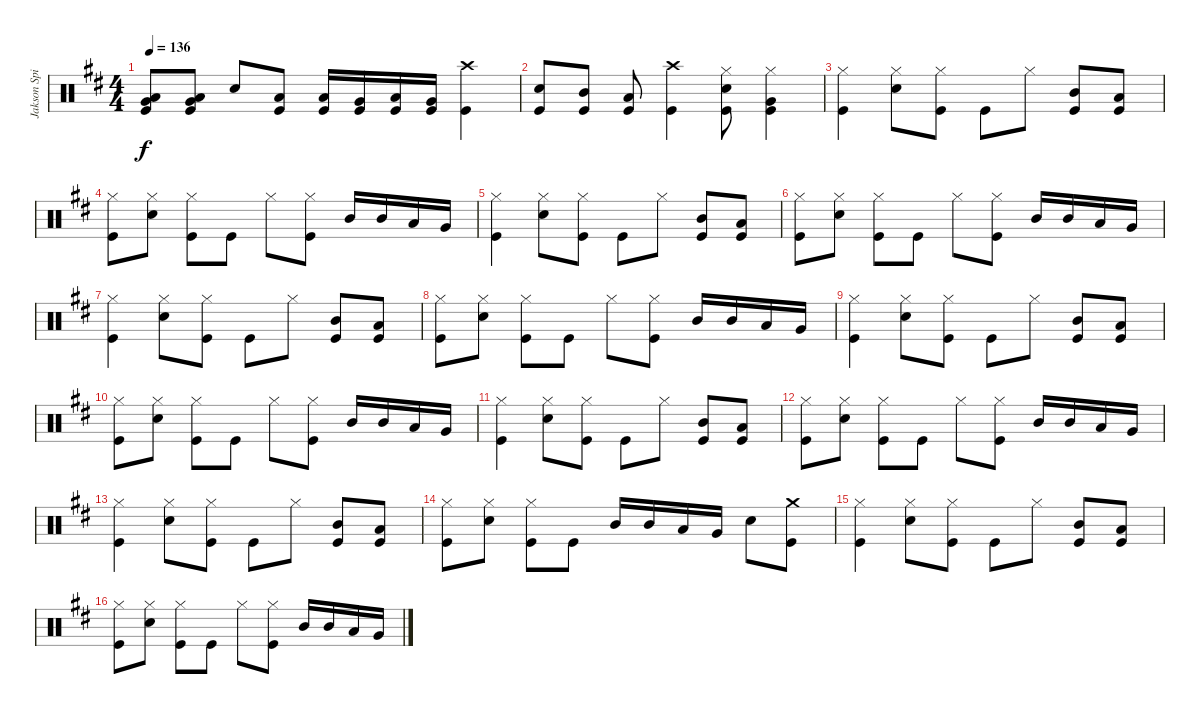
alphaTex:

\track ("Jakson Spires Drums" "Jakson Spi") {instrument percussion}
\staff {score}
\articulation defaults
\ts (4 4)
\tempo 136
\clef neutral
\ks d
("Very Low Tom (hit)" "Low Floor Tom (hit)" "Kick (hit)").8{dy f} ("Very Low Tom (hit)" "Low Floor Tom (hit)" "Kick (hit)").8 "Snare (hit) 2".8 ("Low Tom (hit)" "Kick (hit)").8 ("Low Tom (hit)" "Kick (hit)").16 ("Very Low Tom (hit)" "Kick (hit)").16 ("Low Tom (hit)" "Kick (hit)").16 ("Very Low Tom (hit)" "Kick (hit)").16 ("Crash high (hit)" "Kick (hit)").4 |
("Snare (hit) 2" "Kick (hit)").8 ("Mid Tom (hit)" "Kick (hit)").8 ("Low Tom (hit)" "Kick (hit)").8 ("Crash high (hit)" "Kick (hit)").4 ("Hi-Hat (closed)" "Snare (hit) 2" "Kick (hit)").8 ("Very Low Tom (hit)" "Hi-Hat (closed)" "Kick (hit)").4 |
("Hi-Hat (closed)" "Kick (hit)").4 ("Hi-Hat (closed)" "Snare (hit) 2").8 ("Hi-Hat (closed)" "Kick (hit)").8 "Kick (hit)".8 "Hi-Hat (closed)".8 ("Mid Tom (hit)" "Kick (hit)").8 ("Low Tom (hit)" "Kick (hit)").8 |
("Hi-Hat (closed)" "Kick (hit)").8 ("Hi-Hat (closed)" "Snare (hit) 2").8 ("Hi-Hat (closed)" "Kick (hit)").8 "Kick (hit)".8 "Hi-Hat (closed)".8 ("Hi-Hat (closed)" "Kick (hit)").8 "Mid Tom (hit)".16 "Mid Tom (hit)".16 "Low Tom (hit)".16 "Very Low Tom (hit)".16 |
("Hi-Hat (closed)" "Kick (hit)").4 ("Hi-Hat (closed)" "Snare (hit) 2").8 ("Hi-Hat (closed)" "Kick (hit)").8 "Kick (hit)".8 "Hi-Hat (closed)".8 ("Mid Tom (hit)" "Kick (hit)").8 ("Low Tom (hit)" "Kick (hit)").8 |
("Hi-Hat (closed)" "Kick (hit)").8 ("Hi-Hat (closed)" "Snare (hit) 2").8 ("Hi-Hat (closed)" "Kick (hit)").8 "Kick (hit)".8 "Hi-Hat (closed)".8 ("Hi-Hat (closed)" "Kick (hit)").8 "Mid Tom (hit)".16 "Mid Tom (hit)".16 "Low Tom (hit)".16 "Very Low Tom (hit)".16 |
("Hi-Hat (closed)" "Kick (hit)").4 ("Hi-Hat (closed)" "Snare (hit) 2").8 ("Hi-Hat (closed)" "Kick (hit)").8 "Kick (hit)".8 "Hi-Hat (closed)".8 ("Mid Tom (hit)" "Kick (hit)").8 ("Low Tom (hit)" "Kick (hit)").8 |
("Hi-Hat (closed)" "Kick (hit)").8 ("Hi-Hat (closed)" "Snare (hit) 2").8 ("Hi-Hat (closed)" "Kick (hit)").8 "Kick (hit)".8 "Hi-Hat (closed)".8 ("Hi-Hat (closed)" "Kick (hit)").8 "Mid Tom (hit)".16 "Mid Tom (hit)".16 "Low Tom (hit)".16 "Very Low Tom (hit)".16 |
("Hi-Hat (closed)" "Kick (hit)").4 ("Hi-Hat (closed)" "Snare (hit) 2").8 ("Hi-Hat (closed)" "Kick (hit)").8 "Kick (hit)".8 "Hi-Hat (closed)".8 ("Mid Tom (hit)" "Kick (hit)").8 ("Low Tom (hit)" "Kick (hit)").8 |
("Hi-Hat (closed)" "Kick (hit)").8 ("Hi-Hat (closed)" "Snare (hit) 2").8 ("Hi-Hat (closed)" "Kick (hit)").8 "Kick (hit)".8 "Hi-Hat (closed)".8 ("Hi-Hat (closed)" "Kick (hit)").8 "Mid Tom (hit)".16 "Mid Tom (hit)".16 "Low Tom (hit)".16 "Very Low Tom (hit)".16 |
("Hi-Hat (closed)" "Kick (hit)").4 ("Hi-Hat (closed)" "Snare (hit) 2").8 ("Hi-Hat (closed)" "Kick (hit)").8 "Kick (hit)".8 "Hi-Hat (closed)".8 ("Mid Tom (hit)" "Kick (hit)").8 ("Low Tom (hit)" "Kick (hit)").8 |
("Hi-Hat (closed)" "Kick (hit)").8 ("Hi-Hat (closed)" "Snare (hit) 2").8 ("Hi-Hat (closed)" "Kick (hit)").8 "Kick (hit)".8 "Hi-Hat (closed)".8 ("Hi-Hat (closed)" "Kick (hit)").8 "Mid Tom (hit)".16 "Mid Tom (hit)".16 "Low Tom (hit)".16 "Very Low Tom (hit)".16 |
("Hi-Hat (closed)" "Kick (hit)").4 ("Hi-Hat (closed)" "Snare (hit) 2").8 ("Hi-Hat (closed)" "Kick (hit)").8 "Kick (hit)".8 "Hi-Hat (closed)".8 ("Mid Tom (hit)" "Kick (hit)").8 ("Low Tom (hit)" "Kick (hit)").8 |
("Hi-Hat (closed)" "Kick (hit)").8 ("Hi-Hat (closed)" "Snare (hit) 2").8 ("Hi-Hat (closed)" "Kick (hit)").8 "Kick (hit)".8 "Mid Tom (hit)".16 "Mid Tom (hit)".16 "Low Tom (hit)".16 "Very Low Tom (hit)".16 "Snare (hit) 2".8 ("Crash medium (hit)" "Kick (hit)").8 |
("Hi-Hat (closed)" "Kick (hit)").4 ("Hi-Hat (closed)" "Snare (hit) 2").8 ("Hi-Hat (closed)" "Kick (hit)").8 "Kick (hit)".8 "Hi-Hat (closed)".8 ("Mid Tom (hit)" "Kick (hit)").8 ("Low Tom (hit)" "Kick (hit)").8 |
("Hi-Hat (closed)" "Kick (hit)").8 ("Hi-Hat (closed)" "Snare (hit) 2").8 ("Hi-Hat (closed)" "Kick (hit)").8 "Kick (hit)".8 "Hi-Hat (closed)".8 ("Hi-Hat (closed)" "Kick (hit)").8 "Mid Tom (hit)".16 "Mid Tom (hit)".16 "Low Tom (hit)".16 "Very Low Tom (hit)".16
